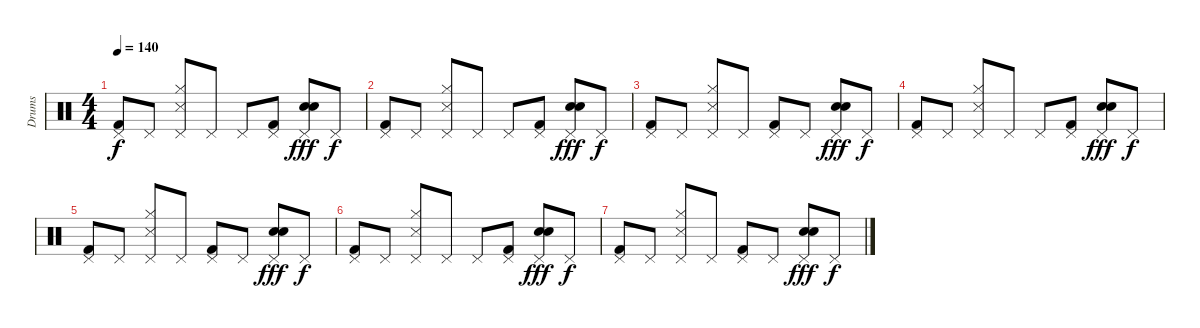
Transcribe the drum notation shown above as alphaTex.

\track ("Drums" "Drums") {instrument percussion}
\staff {score}
\articulation defaults
\ts (4 4)
\tempo 140
\clef neutral
\ks c
("Pedal Hi-Hat (hit)" "Kick (hit) 2").8{dy f} "Pedal Hi-Hat (hit)".8 ("Pedal Hi-Hat (hit)" "Hi-Hat (closed)" "Snare (side stick) 3").8 "Pedal Hi-Hat (hit)".8 "Pedal Hi-Hat (hit)".8 ("Pedal Hi-Hat (hit)" "Kick (hit) 2").8 ("Pedal Hi-Hat (hit)" "Hand Clap (hit)" "Hand Clap (hit)").8{dy fff} "Pedal Hi-Hat (hit)".8{dy f} |
("Pedal Hi-Hat (hit)" "Kick (hit) 2").8 "Pedal Hi-Hat (hit)".8 ("Pedal Hi-Hat (hit)" "Hi-Hat (closed)" "Snare (side stick) 3").8 "Pedal Hi-Hat (hit)".8 "Pedal Hi-Hat (hit)".8 ("Pedal Hi-Hat (hit)" "Kick (hit) 2").8 ("Pedal Hi-Hat (hit)" "Hand Clap (hit)" "Hand Clap (hit)").8{dy fff} "Pedal Hi-Hat (hit)".8{dy f} |
("Pedal Hi-Hat (hit)" "Kick (hit) 2").8 "Pedal Hi-Hat (hit)".8 ("Pedal Hi-Hat (hit)" "Hi-Hat (closed)" "Snare (side stick) 3").8 "Pedal Hi-Hat (hit)".8 ("Pedal Hi-Hat (hit)" "Kick (hit) 2").8 "Pedal Hi-Hat (hit)".8 ("Pedal Hi-Hat (hit)" "Hand Clap (hit)" "Hand Clap (hit)").8{dy fff} "Pedal Hi-Hat (hit)".8{dy f} |
("Pedal Hi-Hat (hit)" "Kick (hit) 2").8 "Pedal Hi-Hat (hit)".8 ("Pedal Hi-Hat (hit)" "Hi-Hat (closed)" "Snare (side stick) 3").8 "Pedal Hi-Hat (hit)".8 "Pedal Hi-Hat (hit)".8 ("Pedal Hi-Hat (hit)" "Kick (hit) 2").8 ("Pedal Hi-Hat (hit)" "Hand Clap (hit)" "Hand Clap (hit)").8{dy fff} "Pedal Hi-Hat (hit)".8{dy f} |
("Pedal Hi-Hat (hit)" "Kick (hit) 2").8 "Pedal Hi-Hat (hit)".8 ("Pedal Hi-Hat (hit)" "Hi-Hat (closed)" "Snare (side stick) 3").8 "Pedal Hi-Hat (hit)".8 ("Pedal Hi-Hat (hit)" "Kick (hit) 2").8 "Pedal Hi-Hat (hit)".8 ("Pedal Hi-Hat (hit)" "Hand Clap (hit)" "Hand Clap (hit)").8{dy fff} "Pedal Hi-Hat (hit)".8{dy f} |
("Pedal Hi-Hat (hit)" "Kick (hit) 2").8 "Pedal Hi-Hat (hit)".8 ("Pedal Hi-Hat (hit)" "Hi-Hat (closed)" "Snare (side stick) 3").8 "Pedal Hi-Hat (hit)".8 "Pedal Hi-Hat (hit)".8 ("Pedal Hi-Hat (hit)" "Kick (hit) 2").8 ("Pedal Hi-Hat (hit)" "Hand Clap (hit)" "Hand Clap (hit)").8{dy fff} "Pedal Hi-Hat (hit)".8{dy f} |
("Pedal Hi-Hat (hit)" "Kick (hit) 2").8 "Pedal Hi-Hat (hit)".8 ("Pedal Hi-Hat (hit)" "Hi-Hat (closed)" "Snare (side stick) 3").8 "Pedal Hi-Hat (hit)".8 ("Pedal Hi-Hat (hit)" "Kick (hit) 2").8 "Pedal Hi-Hat (hit)".8 ("Pedal Hi-Hat (hit)" "Hand Clap (hit)" "Hand Clap (hit)").8{dy fff} "Pedal Hi-Hat (hit)".8{dy f}
